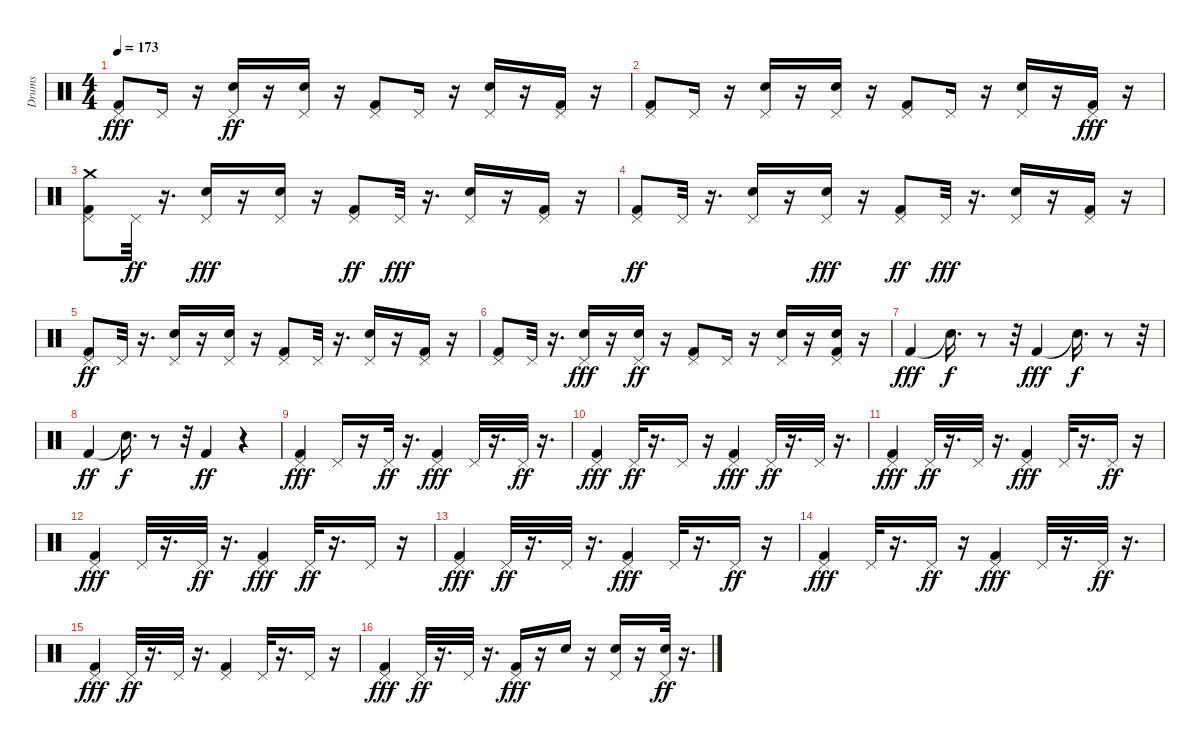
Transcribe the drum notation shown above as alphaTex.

\track ("Drums" "Drums") {instrument percussion}
\staff {score}
\articulation defaults
\ts (4 4)
\tempo 173
\clef neutral
\ks c
("Kick (hit) 2" "Pedal Hi-Hat (hit)").8{dy fff} "Pedal Hi-Hat (hit)".16 r.16 ("Snare (hit) 2" "Pedal Hi-Hat (hit)").16{dy ff} r.16 ("Snare (hit) 2" "Pedal Hi-Hat (hit)").16 r.16 ("Kick (hit) 2" "Pedal Hi-Hat (hit)").8 "Pedal Hi-Hat (hit)".16 r.16 ("Snare (hit) 2" "Pedal Hi-Hat (hit)").16 r.16 ("Kick (hit) 2" "Pedal Hi-Hat (hit)").16 r.16 |
("Kick (hit) 2" "Pedal Hi-Hat (hit)").8 "Pedal Hi-Hat (hit)".16 r.16 ("Snare (hit) 2" "Pedal Hi-Hat (hit)").16 r.16 ("Snare (hit) 2" "Pedal Hi-Hat (hit)").16 r.16 ("Kick (hit) 2" "Pedal Hi-Hat (hit)").8 "Pedal Hi-Hat (hit)".16 r.16 ("Snare (hit) 2" "Pedal Hi-Hat (hit)").16 r.16 ("Kick (hit) 2" "Pedal Hi-Hat (hit)").16{dy fff} r.16 |
("Kick (hit) 2" "Pedal Hi-Hat (hit)" "Crash medium (hit)").8 "Pedal Hi-Hat (hit)".32{dy ff} r.16{d} ("Snare (hit) 2" "Pedal Hi-Hat (hit)").16{dy fff} r.16 ("Snare (hit) 2" "Pedal Hi-Hat (hit)").16 r.16 ("Kick (hit) 2" "Pedal Hi-Hat (hit)").8{dy ff} "Pedal Hi-Hat (hit)".32{dy fff} r.16{d} ("Snare (hit) 2" "Pedal Hi-Hat (hit)").16 r.16 ("Kick (hit) 2" "Pedal Hi-Hat (hit)").16 r.16 |
("Kick (hit) 2" "Pedal Hi-Hat (hit)").8{dy ff} "Pedal Hi-Hat (hit)".32 r.16{d} ("Snare (hit) 2" "Pedal Hi-Hat (hit)").16 r.16 ("Snare (hit) 2" "Pedal Hi-Hat (hit)").16{dy fff} r.16 ("Kick (hit) 2" "Pedal Hi-Hat (hit)").8{dy ff} "Pedal Hi-Hat (hit)".32{dy fff} r.16{d} ("Snare (hit) 2" "Pedal Hi-Hat (hit)").16 r.16 ("Kick (hit) 2" "Pedal Hi-Hat (hit)").16 r.16 |
("Kick (hit) 2" "Pedal Hi-Hat (hit)").8{dy ff} "Pedal Hi-Hat (hit)".32 r.16{d} ("Snare (hit) 2" "Pedal Hi-Hat (hit)").16 r.16 ("Snare (hit) 2" "Pedal Hi-Hat (hit)").16 r.16 ("Kick (hit) 2" "Pedal Hi-Hat (hit)").8 "Pedal Hi-Hat (hit)".32 r.16{d} ("Snare (hit) 2" "Pedal Hi-Hat (hit)").16 r.16 ("Kick (hit) 2" "Pedal Hi-Hat (hit)").16 r.16 |
("Kick (hit) 2" "Pedal Hi-Hat (hit)").8 "Pedal Hi-Hat (hit)".32 r.16{d} ("Snare (hit) 2" "Pedal Hi-Hat (hit)").16{dy fff} r.16 ("Snare (hit) 2" "Pedal Hi-Hat (hit)").16{dy ff} r.16 ("Kick (hit) 2" "Pedal Hi-Hat (hit)").8 "Pedal Hi-Hat (hit)".16 r.16 ("Snare (hit) 2" "Pedal Hi-Hat (hit)").16 r.16 ("Snare (hit) 2" "Kick (hit) 2" "Pedal Hi-Hat (hit)").16 r.16 |
"Kick (hit) 2".4{dy fff} "Snare (hit)"{t}.16{d dy f} r.8 r.32 "Kick (hit) 2".4{dy fff} "Snare (hit)"{t}.16{d dy f} r.8 r.32 |
"Kick (hit) 2".4{dy ff} "Snare (hit)"{t}.16{d dy f} r.8 r.32 "Kick (hit) 2".4{dy ff} r.4 |
("Kick (hit) 2" "Pedal Hi-Hat (hit)").4{dy fff} "Pedal Hi-Hat (hit)".16 r.16 "Pedal Hi-Hat (hit)".32{dy ff} r.16{d} ("Kick (hit) 2" "Pedal Hi-Hat (hit)").4{dy fff} "Pedal Hi-Hat (hit)".32 r.16{d} "Pedal Hi-Hat (hit)".32{dy ff} r.16{d} |
("Kick (hit) 2" "Pedal Hi-Hat (hit)").4{dy fff} "Pedal Hi-Hat (hit)".32{dy ff} r.16{d} "Pedal Hi-Hat (hit)".16 r.16 ("Kick (hit) 2" "Pedal Hi-Hat (hit)").4{dy fff} "Pedal Hi-Hat (hit)".32{dy ff} r.16{d} "Pedal Hi-Hat (hit)".32 r.16{d} |
("Kick (hit) 2" "Pedal Hi-Hat (hit)").4{dy fff} "Pedal Hi-Hat (hit)".32{dy ff} r.16{d} "Pedal Hi-Hat (hit)".32 r.16{d} ("Kick (hit) 2" "Pedal Hi-Hat (hit)").4{dy fff} "Pedal Hi-Hat (hit)".32 r.16{d} "Pedal Hi-Hat (hit)".16{dy ff} r.16 |
("Kick (hit) 2" "Pedal Hi-Hat (hit)").4{dy fff} "Pedal Hi-Hat (hit)".32 r.16{d} "Pedal Hi-Hat (hit)".32{dy ff} r.16{d} ("Kick (hit) 2" "Pedal Hi-Hat (hit)").4{dy fff} "Pedal Hi-Hat (hit)".32{dy ff} r.16{d} "Pedal Hi-Hat (hit)".16 r.16 |
("Kick (hit) 2" "Pedal Hi-Hat (hit)").4{dy fff} "Pedal Hi-Hat (hit)".32{dy ff} r.16{d} "Pedal Hi-Hat (hit)".32 r.16{d} ("Kick (hit) 2" "Pedal Hi-Hat (hit)").4{dy fff} "Pedal Hi-Hat (hit)".32 r.16{d} "Pedal Hi-Hat (hit)".16{dy ff} r.16 |
("Kick (hit) 2" "Pedal Hi-Hat (hit)").4{dy fff} "Pedal Hi-Hat (hit)".32 r.16{d} "Pedal Hi-Hat (hit)".16{dy ff} r.16 ("Kick (hit) 2" "Pedal Hi-Hat (hit)").4{dy fff} "Pedal Hi-Hat (hit)".32 r.16{d} "Pedal Hi-Hat (hit)".32{dy ff} r.16{d} |
("Kick (hit) 2" "Pedal Hi-Hat (hit)").4{dy fff} "Pedal Hi-Hat (hit)".32{dy ff} r.16{d} "Pedal Hi-Hat (hit)".32 r.16{d} ("Kick (hit) 2" "Pedal Hi-Hat (hit)").4 "Pedal Hi-Hat (hit)".32 r.16{d} "Pedal Hi-Hat (hit)".16 r.16 |
("Kick (hit) 2" "Pedal Hi-Hat (hit)").4{dy fff} "Pedal Hi-Hat (hit)".32{dy ff} r.16{d} "Pedal Hi-Hat (hit)".32 r.16{d} ("Kick (hit) 2" "Pedal Hi-Hat (hit)").16{dy fff} r.16 "Snare (hit) 2".16 r.16 ("Snare (hit) 2" "Pedal Hi-Hat (hit)").16 r.16 ("Snare (hit) 2" "Pedal Hi-Hat (hit)").32{dy ff} r.16{d}
